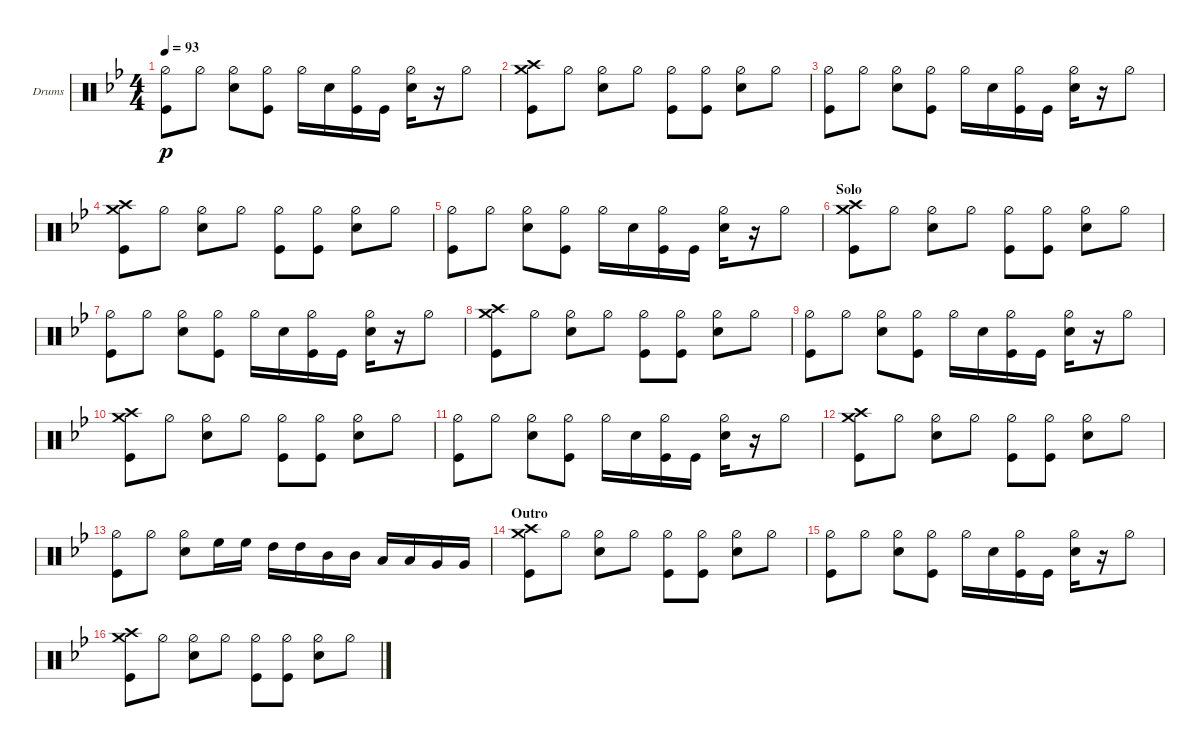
\defaultSystemsLayout 4
\bracketExtendMode groupsimilarinstruments
\firstSystemTrackNameOrientation horizontal
\otherSystemsTrackNameOrientation horizontal
\track ("Drumkit" "Drums") {instrument percussion}
\staff {score}
\articulation defaults
\ts (4 4)
\tempo 93
\clef neutral
\ks bb
("Kick (hit)" "Hi-Hat (half)").8{dy p} "Hi-Hat (half)".8 ("Hi-Hat (half)" "Snare (hit) 2").8 ("Hi-Hat (half)" "Kick (hit)").8 "Hi-Hat (half)".16 "Snare (hit) 2".16 ("Kick (hit)" "Hi-Hat (half)").16 "Kick (hit)".16 ("Hi-Hat (half)" "Snare (hit) 2").16 r.16 "Hi-Hat (half)".8 |
("Crash high (hit)" "Kick (hit)" "Crash medium (hit)").8 "Hi-Hat (half)".8 ("Hi-Hat (half)" "Snare (hit) 2").8 "Hi-Hat (half)".8 ("Hi-Hat (half)" "Kick (hit)").8 ("Hi-Hat (half)" "Kick (hit)").8 ("Hi-Hat (half)" "Snare (hit) 2").8 "Hi-Hat (half)".8 |
("Kick (hit)" "Hi-Hat (half)").8 "Hi-Hat (half)".8 ("Hi-Hat (half)" "Snare (hit) 2").8 ("Hi-Hat (half)" "Kick (hit)").8 "Hi-Hat (half)".16 "Snare (hit) 2".16 ("Kick (hit)" "Hi-Hat (half)").16 "Kick (hit)".16 ("Hi-Hat (half)" "Snare (hit) 2").16 r.16 "Hi-Hat (half)".8 |
("Crash high (hit)" "Kick (hit)" "Crash medium (hit)").8 "Hi-Hat (half)".8 ("Hi-Hat (half)" "Snare (hit) 2").8 "Hi-Hat (half)".8 ("Hi-Hat (half)" "Kick (hit)").8 ("Hi-Hat (half)" "Kick (hit)").8 ("Hi-Hat (half)" "Snare (hit) 2").8 "Hi-Hat (half)".8 |
("Kick (hit)" "Hi-Hat (half)").8 "Hi-Hat (half)".8 ("Hi-Hat (half)" "Snare (hit) 2").8 ("Hi-Hat (half)" "Kick (hit)").8 "Hi-Hat (half)".16 "Snare (hit) 2".16 ("Kick (hit)" "Hi-Hat (half)").16 "Kick (hit)".16 ("Hi-Hat (half)" "Snare (hit) 2").16 r.16 "Hi-Hat (half)".8 |
\section ("" "Solo")
("Crash high (hit)" "Kick (hit)" "Crash medium (hit)").8 "Hi-Hat (half)".8 ("Hi-Hat (half)" "Snare (hit) 2").8 "Hi-Hat (half)".8 ("Hi-Hat (half)" "Kick (hit)").8 ("Hi-Hat (half)" "Kick (hit)").8 ("Hi-Hat (half)" "Snare (hit) 2").8 "Hi-Hat (half)".8 |
("Kick (hit)" "Hi-Hat (half)").8 "Hi-Hat (half)".8 ("Hi-Hat (half)" "Snare (hit) 2").8 ("Hi-Hat (half)" "Kick (hit)").8 "Hi-Hat (half)".16 "Snare (hit) 2".16 ("Kick (hit)" "Hi-Hat (half)").16 "Kick (hit)".16 ("Hi-Hat (half)" "Snare (hit) 2").16 r.16 "Hi-Hat (half)".8 |
("Crash high (hit)" "Kick (hit)" "Crash medium (hit)").8 "Hi-Hat (half)".8 ("Hi-Hat (half)" "Snare (hit) 2").8 "Hi-Hat (half)".8 ("Hi-Hat (half)" "Kick (hit)").8 ("Hi-Hat (half)" "Kick (hit)").8 ("Hi-Hat (half)" "Snare (hit) 2").8 "Hi-Hat (half)".8 |
("Kick (hit)" "Hi-Hat (half)").8 "Hi-Hat (half)".8 ("Hi-Hat (half)" "Snare (hit) 2").8 ("Hi-Hat (half)" "Kick (hit)").8 "Hi-Hat (half)".16 "Snare (hit) 2".16 ("Kick (hit)" "Hi-Hat (half)").16 "Kick (hit)".16 ("Hi-Hat (half)" "Snare (hit) 2").16 r.16 "Hi-Hat (half)".8 |
("Crash high (hit)" "Kick (hit)" "Crash medium (hit)").8 "Hi-Hat (half)".8 ("Hi-Hat (half)" "Snare (hit) 2").8 "Hi-Hat (half)".8 ("Hi-Hat (half)" "Kick (hit)").8 ("Hi-Hat (half)" "Kick (hit)").8 ("Hi-Hat (half)" "Snare (hit) 2").8 "Hi-Hat (half)".8 |
("Kick (hit)" "Hi-Hat (half)").8 "Hi-Hat (half)".8 ("Hi-Hat (half)" "Snare (hit) 2").8 ("Hi-Hat (half)" "Kick (hit)").8 "Hi-Hat (half)".16 "Snare (hit) 2".16 ("Kick (hit)" "Hi-Hat (half)").16 "Kick (hit)".16 ("Hi-Hat (half)" "Snare (hit) 2").16 r.16 "Hi-Hat (half)".8 |
("Crash high (hit)" "Kick (hit)" "Crash medium (hit)").8 "Hi-Hat (half)".8 ("Hi-Hat (half)" "Snare (hit) 2").8 "Hi-Hat (half)".8 ("Hi-Hat (half)" "Kick (hit)").8 ("Hi-Hat (half)" "Kick (hit)").8 ("Hi-Hat (half)" "Snare (hit) 2").8 "Hi-Hat (half)".8 |
("Kick (hit)" "Hi-Hat (half)").8 "Hi-Hat (half)".8 ("Hi-Hat (half)" "Snare (hit) 2").8 "High Floor Tom (hit)".16 "High Floor Tom (hit)".16 "High Tom (hit)".16 "High Tom (hit)".16 "Mid Tom (hit)".16 "Mid Tom (hit)".16 "Low Tom (hit)".16 "Low Tom (hit)".16 "Very Low Tom (hit)".16 "Very Low Tom (hit)".16 |
\section ("" "Outro")
("Crash high (hit)" "Kick (hit)" "Crash medium (hit)").8 "Hi-Hat (half)".8 ("Hi-Hat (half)" "Snare (hit) 2").8 "Hi-Hat (half)".8 ("Hi-Hat (half)" "Kick (hit)").8 ("Hi-Hat (half)" "Kick (hit)").8 ("Hi-Hat (half)" "Snare (hit) 2").8 "Hi-Hat (half)".8 |
("Kick (hit)" "Hi-Hat (half)").8 "Hi-Hat (half)".8 ("Hi-Hat (half)" "Snare (hit) 2").8 ("Hi-Hat (half)" "Kick (hit)").8 "Hi-Hat (half)".16 "Snare (hit) 2".16 ("Kick (hit)" "Hi-Hat (half)").16 "Kick (hit)".16 ("Hi-Hat (half)" "Snare (hit) 2").16 r.16 "Hi-Hat (half)".8 |
("Crash high (hit)" "Kick (hit)" "Crash medium (hit)").8 "Hi-Hat (half)".8 ("Hi-Hat (half)" "Snare (hit) 2").8 "Hi-Hat (half)".8 ("Hi-Hat (half)" "Kick (hit)").8 ("Hi-Hat (half)" "Kick (hit)").8 ("Hi-Hat (half)" "Snare (hit) 2").8 "Hi-Hat (half)".8
